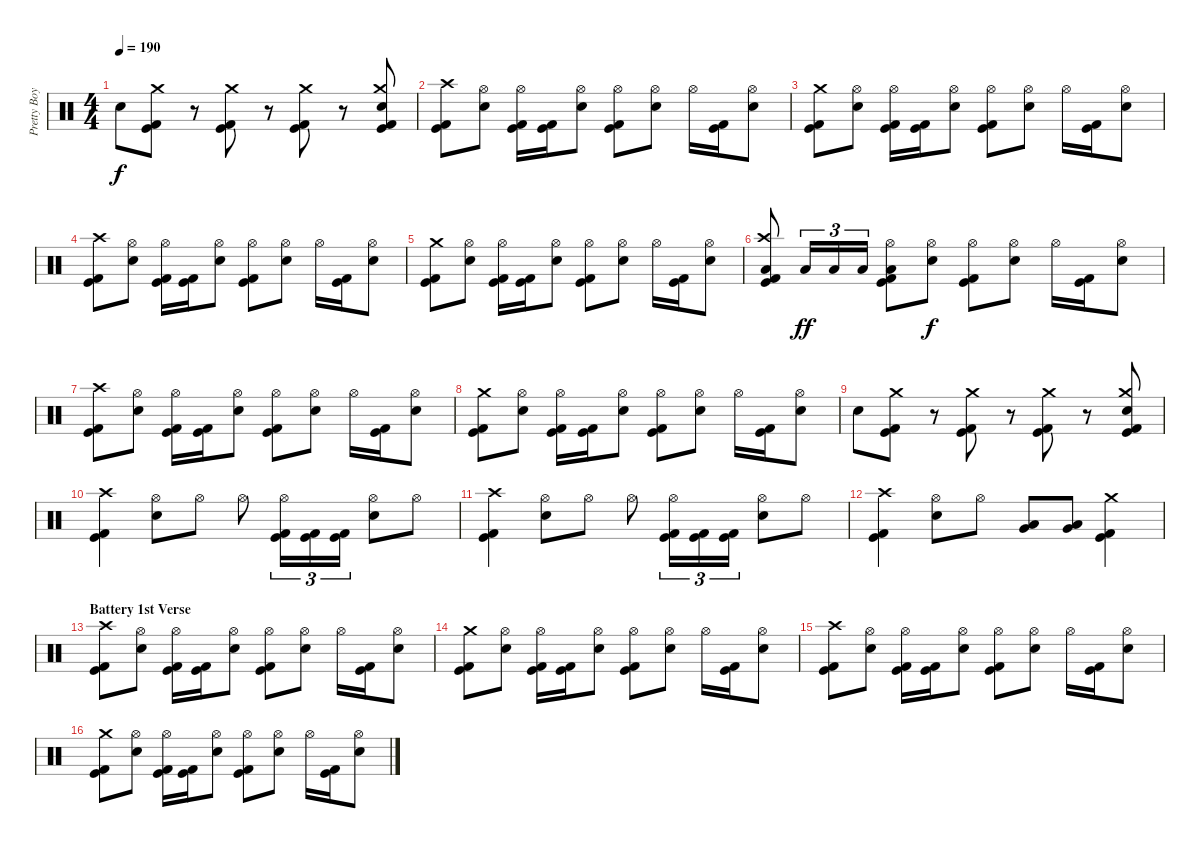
\track ("Pretty Boy Geoff (Lars Drums)" "Pretty Boy") {instrument percussion}
\staff {score}
\articulation defaults
\ts (4 4)
\tempo 190
\clef neutral
\ks c "Electric Snare (hit)".8{dy f}
("Crash medium (hit)" "Kick (hit) 2" "Kick (hit)").8 r.8 ("Crash medium (hit)" "Kick (hit)" "Kick (hit) 2").8 r.8 ("Crash medium (hit)" "Kick (hit)" "Kick (hit) 2").8 r.8 ("Crash medium (hit)" "Electric Snare (hit)" "Kick (hit)" "Kick (hit) 2").8 |
("Crash high (hit)" "Kick (hit) 2" "Kick (hit)").8 ("Hi-Hat (open)" "Electric Snare (hit)").8 ("Hi-Hat (open)" "Kick (hit) 2" "Kick (hit)").16 ("Kick (hit) 2" "Kick (hit)").16 ("Hi-Hat (open)" "Electric Snare (hit)").8 ("Hi-Hat (open)" "Kick (hit) 2" "Kick (hit)").8 ("Hi-Hat (open)" "Electric Snare (hit)").8 "Hi-Hat (open)".16 ("Kick (hit) 2" "Kick (hit)").16 ("Hi-Hat (open)" "Electric Snare (hit)").8 |
("Crash medium (hit)" "Kick (hit) 2" "Kick (hit)").8 ("Hi-Hat (open)" "Electric Snare (hit)").8 ("Hi-Hat (open)" "Kick (hit) 2" "Kick (hit)").16 ("Kick (hit) 2" "Kick (hit)").16 ("Hi-Hat (open)" "Electric Snare (hit)").8 ("Hi-Hat (open)" "Kick (hit) 2" "Kick (hit)").8 ("Hi-Hat (open)" "Electric Snare (hit)").8 "Hi-Hat (open)".16 ("Kick (hit) 2" "Kick (hit)").16 ("Hi-Hat (open)" "Electric Snare (hit)").8 |
("Crash high (hit)" "Kick (hit) 2" "Kick (hit)").8 ("Hi-Hat (open)" "Electric Snare (hit)").8 ("Hi-Hat (open)" "Kick (hit) 2" "Kick (hit)").16 ("Kick (hit) 2" "Kick (hit)").16 ("Hi-Hat (open)" "Electric Snare (hit)").8 ("Hi-Hat (open)" "Kick (hit) 2" "Kick (hit)").8 ("Hi-Hat (open)" "Electric Snare (hit)").8 "Hi-Hat (open)".16 ("Kick (hit) 2" "Kick (hit)").16 ("Hi-Hat (open)" "Electric Snare (hit)").8 |
("Crash medium (hit)" "Kick (hit) 2" "Kick (hit)").8 ("Hi-Hat (open)" "Electric Snare (hit)").8 ("Hi-Hat (open)" "Kick (hit) 2" "Kick (hit)").16 ("Kick (hit) 2" "Kick (hit)").16 ("Hi-Hat (open)" "Electric Snare (hit)").8 ("Hi-Hat (open)" "Kick (hit) 2" "Kick (hit)").8 ("Hi-Hat (open)" "Electric Snare (hit)").8 "Hi-Hat (open)".16 ("Kick (hit) 2" "Kick (hit)").16 ("Hi-Hat (open)" "Electric Snare (hit)").8 |
("Crash high (hit)" "Low Tom (hit)" "Kick (hit) 2" "Kick (hit)").8 "Low Tom (hit)".16{tu (3 2) dy ff} "Low Tom (hit)".16{tu (3 2)} "Low Tom (hit)".16{tu (3 2)} ("Hi-Hat (open)" "Low Tom (hit)" "Kick (hit) 2" "Kick (hit)").8 ("Hi-Hat (open)" "Electric Snare (hit)").8{dy f} ("Hi-Hat (open)" "Kick (hit) 2" "Kick (hit)").8 ("Hi-Hat (open)" "Electric Snare (hit)").8 "Hi-Hat (open)".16 ("Kick (hit) 2" "Kick (hit)").16 ("Hi-Hat (open)" "Electric Snare (hit)").8 |
("Crash high (hit)" "Kick (hit) 2" "Kick (hit)").8 ("Hi-Hat (open)" "Electric Snare (hit)").8 ("Hi-Hat (open)" "Kick (hit) 2" "Kick (hit)").16 ("Kick (hit) 2" "Kick (hit)").16 ("Hi-Hat (open)" "Electric Snare (hit)").8 ("Hi-Hat (open)" "Kick (hit) 2" "Kick (hit)").8 ("Hi-Hat (open)" "Electric Snare (hit)").8 "Hi-Hat (open)".16 ("Kick (hit) 2" "Kick (hit)").16 ("Hi-Hat (open)" "Electric Snare (hit)").8 |
("Crash medium (hit)" "Kick (hit) 2" "Kick (hit)").8 ("Hi-Hat (open)" "Electric Snare (hit)").8 ("Hi-Hat (open)" "Kick (hit) 2" "Kick (hit)").16 ("Kick (hit) 2" "Kick (hit)").16 ("Hi-Hat (open)" "Electric Snare (hit)").8 ("Hi-Hat (open)" "Kick (hit) 2" "Kick (hit)").8 ("Hi-Hat (open)" "Electric Snare (hit)").8 "Hi-Hat (open)".16 ("Kick (hit) 2" "Kick (hit)").16 ("Hi-Hat (open)" "Electric Snare (hit)").8 |
"Electric Snare (hit)".8 ("Crash medium (hit)" "Kick (hit) 2" "Kick (hit)").8 r.8 ("Crash medium (hit)" "Kick (hit)" "Kick (hit) 2").8 r.8 ("Crash medium (hit)" "Kick (hit)" "Kick (hit) 2").8 r.8 ("Crash medium (hit)" "Electric Snare (hit)" "Kick (hit)" "Kick (hit) 2").8 |
("Crash high (hit)" "Kick (hit) 2" "Kick (hit)").4 ("Hi-Hat (open)" "Electric Snare (hit)").8 "Hi-Hat (open)".8 "Hi-Hat (open)".8 ("Hi-Hat (open)" "Kick (hit) 2" "Kick (hit)").16{tu (3 2)} ("Kick (hit) 2" "Kick (hit)").16{tu (3 2)} ("Kick (hit) 2" "Kick (hit)").16{tu (3 2)} ("Hi-Hat (open)" "Electric Snare (hit)").8 "Hi-Hat (open)".8 |
("Crash high (hit)" "Kick (hit) 2" "Kick (hit)").4 ("Hi-Hat (open)" "Electric Snare (hit)").8 "Hi-Hat (open)".8 "Hi-Hat (open)".8 ("Hi-Hat (open)" "Kick (hit) 2" "Kick (hit)").16{tu (3 2)} ("Kick (hit) 2" "Kick (hit)").16{tu (3 2)} ("Kick (hit) 2" "Kick (hit)").16{tu (3 2)} ("Hi-Hat (open)" "Electric Snare (hit)").8 "Hi-Hat (open)".8 |
("Crash high (hit)" "Kick (hit) 2" "Kick (hit)").4 ("Hi-Hat (open)" "Electric Snare (hit)").8 "Hi-Hat (open)".8 ("Low Tom (hit)" "Very Low Tom (hit)").8 ("Low Tom (hit)" "Very Low Tom (hit)").8 ("Crash medium (hit)" "Kick (hit) 2" "Kick (hit)").4 |
\section ("" "Battery 1st Verse")
("Crash high (hit)" "Kick (hit) 2" "Kick (hit)").8 ("Hi-Hat (open)" "Electric Snare (hit)").8 ("Hi-Hat (open)" "Kick (hit) 2" "Kick (hit)").16 ("Kick (hit) 2" "Kick (hit)").16 ("Hi-Hat (open)" "Electric Snare (hit)").8 ("Hi-Hat (open)" "Kick (hit) 2" "Kick (hit)").8 ("Hi-Hat (open)" "Electric Snare (hit)").8 "Hi-Hat (open)".16 ("Kick (hit) 2" "Kick (hit)").16 ("Hi-Hat (open)" "Electric Snare (hit)").8 |
("Crash medium (hit)" "Kick (hit) 2" "Kick (hit)").8 ("Hi-Hat (open)" "Electric Snare (hit)").8 ("Hi-Hat (open)" "Kick (hit) 2" "Kick (hit)").16 ("Kick (hit) 2" "Kick (hit)").16 ("Hi-Hat (open)" "Electric Snare (hit)").8 ("Hi-Hat (open)" "Kick (hit) 2" "Kick (hit)").8 ("Hi-Hat (open)" "Electric Snare (hit)").8 "Hi-Hat (open)".16 ("Kick (hit) 2" "Kick (hit)").16 ("Hi-Hat (open)" "Electric Snare (hit)").8 |
("Crash high (hit)" "Kick (hit) 2" "Kick (hit)").8 ("Hi-Hat (open)" "Electric Snare (hit)").8 ("Hi-Hat (open)" "Kick (hit) 2" "Kick (hit)").16 ("Kick (hit) 2" "Kick (hit)").16 ("Hi-Hat (open)" "Electric Snare (hit)").8 ("Hi-Hat (open)" "Kick (hit) 2" "Kick (hit)").8 ("Hi-Hat (open)" "Electric Snare (hit)").8 "Hi-Hat (open)".16 ("Kick (hit) 2" "Kick (hit)").16 ("Hi-Hat (open)" "Electric Snare (hit)").8 |
("Crash medium (hit)" "Kick (hit) 2" "Kick (hit)").8 ("Hi-Hat (open)" "Electric Snare (hit)").8 ("Hi-Hat (open)" "Kick (hit) 2" "Kick (hit)").16 ("Kick (hit) 2" "Kick (hit)").16 ("Hi-Hat (open)" "Electric Snare (hit)").8 ("Hi-Hat (open)" "Kick (hit) 2" "Kick (hit)").8 ("Hi-Hat (open)" "Electric Snare (hit)").8 "Hi-Hat (open)".16 ("Kick (hit) 2" "Kick (hit)").16 ("Hi-Hat (open)" "Electric Snare (hit)").8
